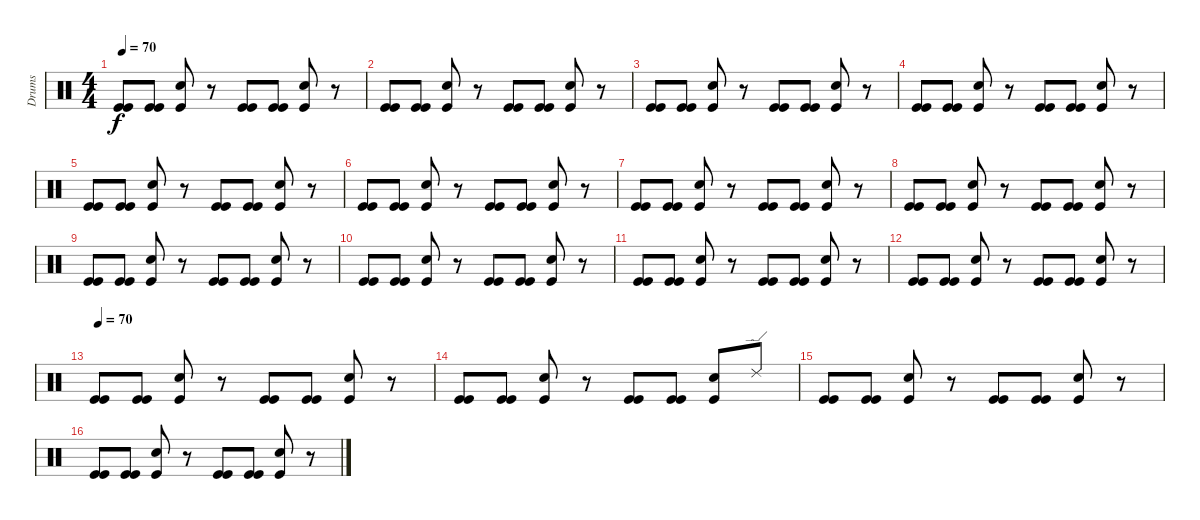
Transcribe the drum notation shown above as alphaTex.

\track ("Drums" "Drums") {instrument percussion}
\staff {score}
\articulation defaults
\ts (4 4)
\tempo 70
\clef neutral
\ks c
("Kick (hit)" "Kick (hit)").8{dy f} ("Kick (hit)" "Kick (hit)").8 ("Snare (hit) 2" "Kick (hit)").8 r.8 ("Kick (hit)" "Kick (hit)").8 ("Kick (hit)" "Kick (hit)").8 ("Snare (hit) 2" "Kick (hit)").8 r.8 |
("Kick (hit)" "Kick (hit)").8 ("Kick (hit)" "Kick (hit)").8 ("Snare (hit) 2" "Kick (hit)").8 r.8 ("Kick (hit)" "Kick (hit)").8 ("Kick (hit)" "Kick (hit)").8 ("Snare (hit) 2" "Kick (hit)").8 r.8 |
("Kick (hit)" "Kick (hit)").8 ("Kick (hit)" "Kick (hit)").8 ("Snare (hit) 2" "Kick (hit)").8 r.8 ("Kick (hit)" "Kick (hit)").8 ("Kick (hit)" "Kick (hit)").8 ("Snare (hit) 2" "Kick (hit)").8 r.8 |
("Kick (hit)" "Kick (hit)").8 ("Kick (hit)" "Kick (hit)").8 ("Snare (hit) 2" "Kick (hit)").8 r.8 ("Kick (hit)" "Kick (hit)").8 ("Kick (hit)" "Kick (hit)").8 ("Snare (hit) 2" "Kick (hit)").8 r.8 |
("Kick (hit)" "Kick (hit)").8 ("Kick (hit)" "Kick (hit)").8 ("Snare (hit) 2" "Kick (hit)").8 r.8 ("Kick (hit)" "Kick (hit)").8 ("Kick (hit)" "Kick (hit)").8 ("Snare (hit) 2" "Kick (hit)").8 r.8 |
("Kick (hit)" "Kick (hit)").8 ("Kick (hit)" "Kick (hit)").8 ("Snare (hit) 2" "Kick (hit)").8 r.8 ("Kick (hit)" "Kick (hit)").8 ("Kick (hit)" "Kick (hit)").8 ("Snare (hit) 2" "Kick (hit)").8 r.8 |
("Kick (hit)" "Kick (hit)").8 ("Kick (hit)" "Kick (hit)").8 ("Snare (hit) 2" "Kick (hit)").8 r.8 ("Kick (hit)" "Kick (hit)").8 ("Kick (hit)" "Kick (hit)").8 ("Snare (hit) 2" "Kick (hit)").8 r.8 |
("Kick (hit)" "Kick (hit)").8 ("Kick (hit)" "Kick (hit)").8 ("Snare (hit) 2" "Kick (hit)").8 r.8 ("Kick (hit)" "Kick (hit)").8 ("Kick (hit)" "Kick (hit)").8 ("Snare (hit) 2" "Kick (hit)").8 r.8 |
("Kick (hit)" "Kick (hit)").8 ("Kick (hit)" "Kick (hit)").8 ("Snare (hit) 2" "Kick (hit)").8 r.8 ("Kick (hit)" "Kick (hit)").8 ("Kick (hit)" "Kick (hit)").8 ("Snare (hit) 2" "Kick (hit)").8 r.8 |
("Kick (hit)" "Kick (hit)").8 ("Kick (hit)" "Kick (hit)").8 ("Snare (hit) 2" "Kick (hit)").8 r.8 ("Kick (hit)" "Kick (hit)").8 ("Kick (hit)" "Kick (hit)").8 ("Snare (hit) 2" "Kick (hit)").8 r.8 |
("Kick (hit)" "Kick (hit)").8 ("Kick (hit)" "Kick (hit)").8 ("Snare (hit) 2" "Kick (hit)").8 r.8 ("Kick (hit)" "Kick (hit)").8 ("Kick (hit)" "Kick (hit)").8 ("Snare (hit) 2" "Kick (hit)").8 r.8 |
("Kick (hit)" "Kick (hit)").8 ("Kick (hit)" "Kick (hit)").8 ("Snare (hit) 2" "Kick (hit)").8 r.8 ("Kick (hit)" "Kick (hit)").8 ("Kick (hit)" "Kick (hit)").8 ("Snare (hit) 2" "Kick (hit)").8 r.8 |
\tempo 70
("Kick (hit)" "Kick (hit)").8 ("Kick (hit)" "Kick (hit)").8 ("Snare (hit) 2" "Kick (hit)").8 r.8 ("Kick (hit)" "Kick (hit)").8 ("Kick (hit)" "Kick (hit)").8 ("Snare (hit) 2" "Kick (hit)").8 r.8 |
("Kick (hit)" "Kick (hit)").8 ("Kick (hit)" "Kick (hit)").8 ("Snare (hit) 2" "Kick (hit)").8 r.8 ("Kick (hit)" "Kick (hit)").8 ("Kick (hit)" "Kick (hit)").8 ("Snare (hit) 2" "Kick (hit)").8 "Ride (edge) 2".8 |
("Kick (hit)" "Kick (hit)").8 ("Kick (hit)" "Kick (hit)").8 ("Snare (hit) 2" "Kick (hit)").8 r.8 ("Kick (hit)" "Kick (hit)").8 ("Kick (hit)" "Kick (hit)").8 ("Snare (hit) 2" "Kick (hit)").8 r.8 |
("Kick (hit)" "Kick (hit)").8 ("Kick (hit)" "Kick (hit)").8 ("Snare (hit) 2" "Kick (hit)").8 r.8 ("Kick (hit)" "Kick (hit)").8 ("Kick (hit)" "Kick (hit)").8 ("Snare (hit) 2" "Kick (hit)").8 r.8
